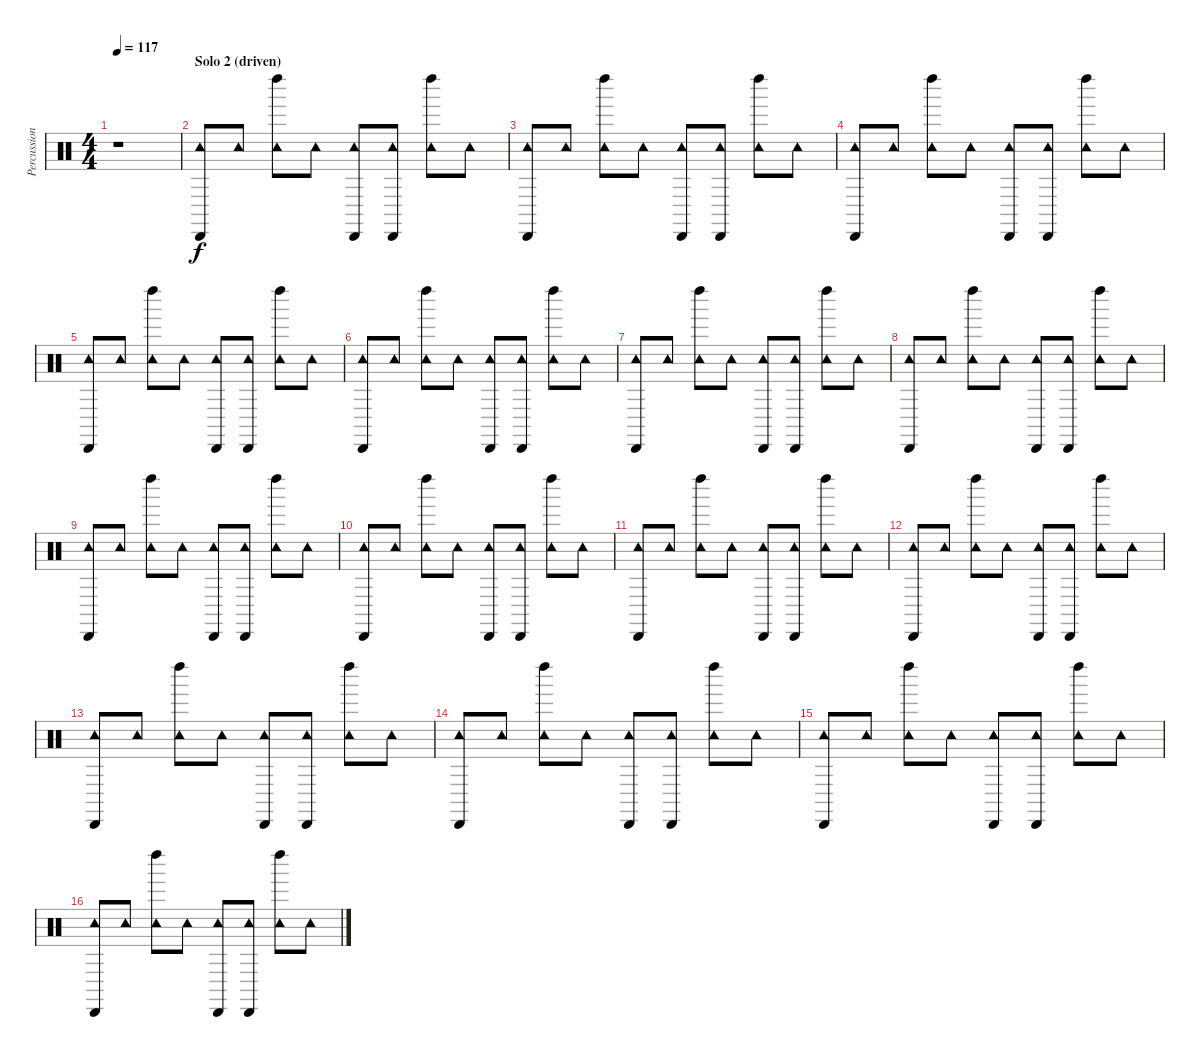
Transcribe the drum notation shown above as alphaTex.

\track ("Percussion" "Percussion") {instrument percussion}
\staff {score}
\articulation defaults
\ts (4 4)
\tempo 117
\clef neutral
\ks c
r.1{dy f} |
\section ("" "Solo 2 (driven)")
("Tambourine (hit)" "Cabasa (hit)").8 "Tambourine (hit)".8 ("Tambourine (hit)" "Left Maraca (hit)").8 "Tambourine (hit)".8 ("Tambourine (hit)" "Cabasa (hit)").8 ("Tambourine (hit)" "Cabasa (hit)").8 ("Tambourine (hit)" "Left Maraca (hit)").8 "Tambourine (hit)".8 |
("Tambourine (hit)" "Cabasa (hit)").8 "Tambourine (hit)".8 ("Tambourine (hit)" "Left Maraca (hit)").8 "Tambourine (hit)".8 ("Tambourine (hit)" "Cabasa (hit)").8 ("Tambourine (hit)" "Cabasa (hit)").8 ("Tambourine (hit)" "Left Maraca (hit)").8 "Tambourine (hit)".8 |
("Tambourine (hit)" "Cabasa (hit)").8 "Tambourine (hit)".8 ("Tambourine (hit)" "Left Maraca (hit)").8 "Tambourine (hit)".8 ("Tambourine (hit)" "Cabasa (hit)").8 ("Tambourine (hit)" "Cabasa (hit)").8 ("Tambourine (hit)" "Left Maraca (hit)").8 "Tambourine (hit)".8 |
("Tambourine (hit)" "Cabasa (hit)").8 "Tambourine (hit)".8 ("Tambourine (hit)" "Left Maraca (hit)").8 "Tambourine (hit)".8 ("Tambourine (hit)" "Cabasa (hit)").8 ("Tambourine (hit)" "Cabasa (hit)").8 ("Tambourine (hit)" "Left Maraca (hit)").8 "Tambourine (hit)".8 |
("Tambourine (hit)" "Cabasa (hit)").8 "Tambourine (hit)".8 ("Tambourine (hit)" "Left Maraca (hit)").8 "Tambourine (hit)".8 ("Tambourine (hit)" "Cabasa (hit)").8 ("Tambourine (hit)" "Cabasa (hit)").8 ("Tambourine (hit)" "Left Maraca (hit)").8 "Tambourine (hit)".8 |
("Tambourine (hit)" "Cabasa (hit)").8 "Tambourine (hit)".8 ("Tambourine (hit)" "Left Maraca (hit)").8 "Tambourine (hit)".8 ("Tambourine (hit)" "Cabasa (hit)").8 ("Tambourine (hit)" "Cabasa (hit)").8 ("Tambourine (hit)" "Left Maraca (hit)").8 "Tambourine (hit)".8 |
("Tambourine (hit)" "Cabasa (hit)").8 "Tambourine (hit)".8 ("Tambourine (hit)" "Left Maraca (hit)").8 "Tambourine (hit)".8 ("Tambourine (hit)" "Cabasa (hit)").8 ("Tambourine (hit)" "Cabasa (hit)").8 ("Tambourine (hit)" "Left Maraca (hit)").8 "Tambourine (hit)".8 |
("Tambourine (hit)" "Cabasa (hit)").8 "Tambourine (hit)".8 ("Tambourine (hit)" "Left Maraca (hit)").8 "Tambourine (hit)".8 ("Tambourine (hit)" "Cabasa (hit)").8 ("Tambourine (hit)" "Cabasa (hit)").8 ("Tambourine (hit)" "Left Maraca (hit)").8 "Tambourine (hit)".8 |
("Tambourine (hit)" "Cabasa (hit)").8 "Tambourine (hit)".8 ("Tambourine (hit)" "Left Maraca (hit)").8 "Tambourine (hit)".8 ("Tambourine (hit)" "Cabasa (hit)").8 ("Tambourine (hit)" "Cabasa (hit)").8 ("Tambourine (hit)" "Left Maraca (hit)").8 "Tambourine (hit)".8 |
("Tambourine (hit)" "Cabasa (hit)").8 "Tambourine (hit)".8 ("Tambourine (hit)" "Left Maraca (hit)").8 "Tambourine (hit)".8 ("Tambourine (hit)" "Cabasa (hit)").8 ("Tambourine (hit)" "Cabasa (hit)").8 ("Tambourine (hit)" "Left Maraca (hit)").8 "Tambourine (hit)".8 |
("Tambourine (hit)" "Cabasa (hit)").8 "Tambourine (hit)".8 ("Tambourine (hit)" "Left Maraca (hit)").8 "Tambourine (hit)".8 ("Tambourine (hit)" "Cabasa (hit)").8 ("Tambourine (hit)" "Cabasa (hit)").8 ("Tambourine (hit)" "Left Maraca (hit)").8 "Tambourine (hit)".8 |
("Tambourine (hit)" "Cabasa (hit)").8 "Tambourine (hit)".8 ("Tambourine (hit)" "Left Maraca (hit)").8 "Tambourine (hit)".8 ("Tambourine (hit)" "Cabasa (hit)").8 ("Tambourine (hit)" "Cabasa (hit)").8 ("Tambourine (hit)" "Left Maraca (hit)").8 "Tambourine (hit)".8 |
("Tambourine (hit)" "Cabasa (hit)").8 "Tambourine (hit)".8 ("Tambourine (hit)" "Left Maraca (hit)").8 "Tambourine (hit)".8 ("Tambourine (hit)" "Cabasa (hit)").8 ("Tambourine (hit)" "Cabasa (hit)").8 ("Tambourine (hit)" "Left Maraca (hit)").8 "Tambourine (hit)".8 |
("Tambourine (hit)" "Cabasa (hit)").8 "Tambourine (hit)".8 ("Tambourine (hit)" "Left Maraca (hit)").8 "Tambourine (hit)".8 ("Tambourine (hit)" "Cabasa (hit)").8 ("Tambourine (hit)" "Cabasa (hit)").8 ("Tambourine (hit)" "Left Maraca (hit)").8 "Tambourine (hit)".8 |
("Tambourine (hit)" "Cabasa (hit)").8 "Tambourine (hit)".8 ("Tambourine (hit)" "Left Maraca (hit)").8 "Tambourine (hit)".8 ("Tambourine (hit)" "Cabasa (hit)").8 ("Tambourine (hit)" "Cabasa (hit)").8 ("Tambourine (hit)" "Left Maraca (hit)").8 "Tambourine (hit)".8
